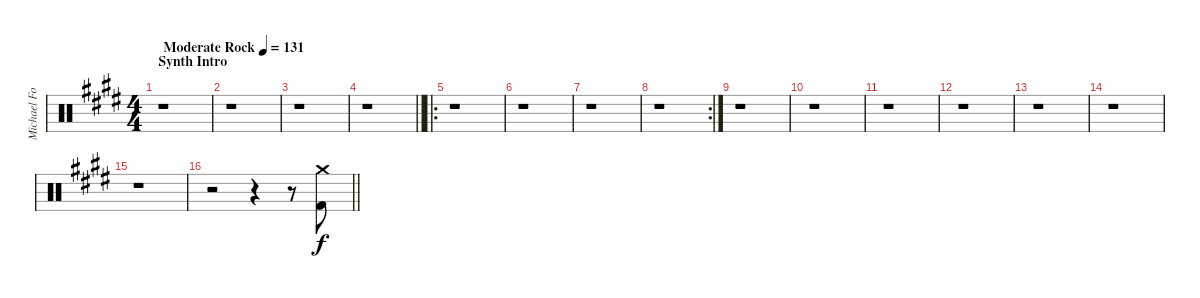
\track ("Michael Foster Drums" "Michael Fo") {instrument percussion}
\staff {score}
\articulation defaults
\ts (4 4)
\section ("" "Synth Intro")
\tempo (131 "Moderate Rock")
\clef neutral
\ks e
r.1{dy f} |
r.1 |
r.1 |
\barLineRight lightlight
r.1 |
\ro
r.1 |
r.1 |
r.1 |
\rc 2
r.1 |
r.1 |
r.1 |
r.1 |
r.1 |
r.1 |
r.1 |
r.1 |
\barLineRight lightlight
r.2 r.4 r.8 ("Crash medium (hit)" "Kick (hit) 2").8{volume 8}
